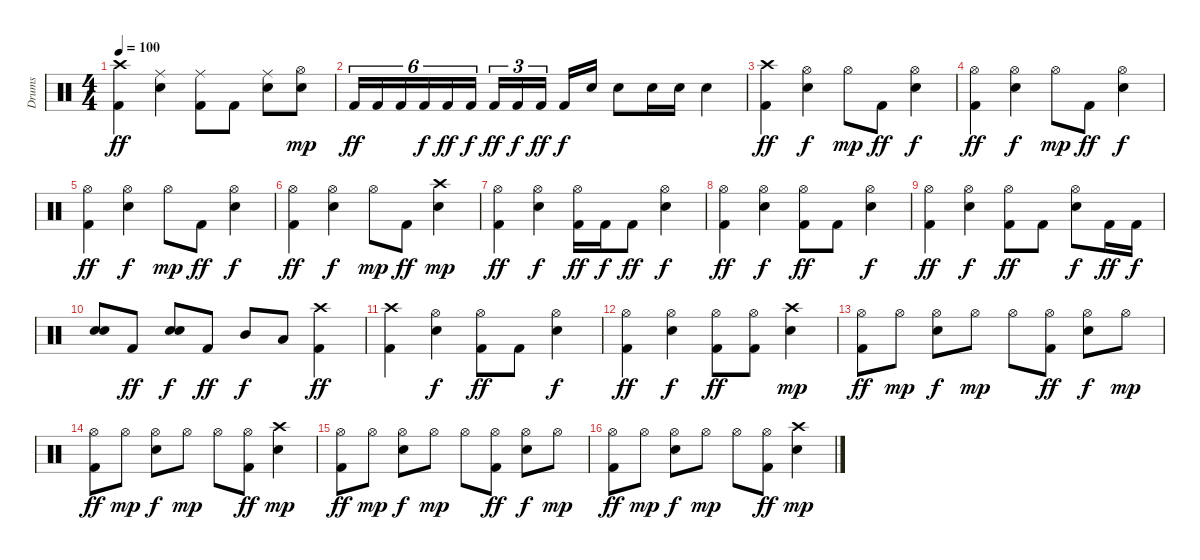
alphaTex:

\track ("Drums" "Drums") {instrument percussion}
\staff {score}
\articulation defaults
\ts (4 4)
\tempo 100
\clef neutral
\ks c
("Crash high (hit)" "Kick (hit) 2").4{dy ff} ("Ride (middle)" "Electric Snare (hit)").4 ("Ride (middle)" "Kick (hit) 2").8 "Kick (hit) 2".8 ("Ride (middle)" "Electric Snare (hit)").8 ("Hi-Hat (open)" "Electric Snare (hit)").8{dy mp} |
"Kick (hit) 2".16{tu (6 4) dy ff} "Kick (hit) 2".16{tu (6 4)} "Kick (hit) 2".16{tu (6 4)} "Kick (hit) 2".16{tu (6 4) dy f} "Kick (hit) 2".16{tu (6 4) dy ff} "Kick (hit) 2".16{tu (6 4) dy f} "Kick (hit) 2".16{tu (3 2) dy ff} "Kick (hit) 2".16{tu (3 2) dy f} "Kick (hit) 2".16{tu (3 2) dy ff} "Kick (hit) 2".16{dy f} "Electric Snare (hit)".16 "Electric Snare (hit)".8 "Electric Snare (hit)".16 "Electric Snare (hit)".16 "Electric Snare (hit)".4 |
("Crash high (hit)" "Kick (hit) 2").4{dy ff} ("Hi-Hat (open)" "Electric Snare (hit)").4{dy f} "Hi-Hat (open)".8{dy mp} "Kick (hit) 2".8{dy ff} ("Hi-Hat (open)" "Electric Snare (hit)").4{dy f} |
("Hi-Hat (open)" "Kick (hit) 2").4{dy ff} ("Hi-Hat (open)" "Electric Snare (hit)").4{dy f} "Hi-Hat (open)".8{dy mp} "Kick (hit) 2".8{dy ff} ("Hi-Hat (open)" "Electric Snare (hit)").4{dy f} |
("Hi-Hat (open)" "Kick (hit) 2").4{dy ff} ("Hi-Hat (open)" "Electric Snare (hit)").4{dy f} "Hi-Hat (open)".8{dy mp} "Kick (hit) 2".8{dy ff} ("Hi-Hat (open)" "Electric Snare (hit)").4{dy f} |
("Hi-Hat (open)" "Kick (hit) 2").4{dy ff} ("Hi-Hat (open)" "Electric Snare (hit)").4{dy f} "Hi-Hat (open)".8{dy mp} "Kick (hit) 2".8{dy ff} ("Crash high (hit)" "Electric Snare (hit)").4{dy mp} |
("Hi-Hat (open)" "Kick (hit) 2").4{dy ff} ("Hi-Hat (open)" "Electric Snare (hit)").4{dy f} ("Hi-Hat (open)" "Kick (hit) 2").16{dy ff} "Kick (hit) 2".16{dy f} "Kick (hit) 2".8{dy ff} ("Hi-Hat (open)" "Electric Snare (hit)").4{dy f} |
("Hi-Hat (open)" "Kick (hit) 2").4{dy ff} ("Hi-Hat (open)" "Electric Snare (hit)").4{dy f} ("Hi-Hat (open)" "Kick (hit) 2").8{dy ff} "Kick (hit) 2".8 ("Hi-Hat (open)" "Electric Snare (hit)").4{dy f} |
("Hi-Hat (open)" "Kick (hit) 2").4{dy ff} ("Hi-Hat (open)" "Electric Snare (hit)").4{dy f} ("Hi-Hat (open)" "Kick (hit) 2").8{dy ff} "Kick (hit) 2".8 ("Hi-Hat (open)" "Electric Snare (hit)").8{dy f} "Kick (hit) 2".16{dy ff} "Kick (hit) 2".16{dy f} |
("Electric Snare (hit)" "Electric Snare (hit)").8 "Kick (hit) 2".8{dy ff} ("Electric Snare (hit)" "Electric Snare (hit)").8{dy f} "Kick (hit) 2".8{dy ff} "Mid Tom (hit)".8{dy f} "Low Tom (hit)".8 ("Crash high (hit)" "Kick (hit) 2").4{dy ff} |
("Crash high (hit)" "Kick (hit) 2").4 ("Hi-Hat (open)" "Electric Snare (hit)").4{dy f} ("Hi-Hat (open)" "Kick (hit) 2").8{dy ff} "Kick (hit) 2".8 ("Hi-Hat (open)" "Electric Snare (hit)").4{dy f} |
("Hi-Hat (open)" "Kick (hit) 2").4{dy ff} ("Hi-Hat (open)" "Electric Snare (hit)").4{dy f} ("Hi-Hat (open)" "Kick (hit) 2").8{dy ff} ("Hi-Hat (open)" "Kick (hit) 2").8 ("Crash high (hit)" "Electric Snare (hit)").4{dy mp} |
("Hi-Hat (open)" "Kick (hit) 2").8{dy ff} "Hi-Hat (open)".8{dy mp} ("Hi-Hat (open)" "Electric Snare (hit)").8{dy f} "Hi-Hat (open)".8{dy mp} "Hi-Hat (open)".8 ("Hi-Hat (open)" "Kick (hit) 2").8{dy ff} ("Hi-Hat (open)" "Electric Snare (hit)").8{dy f} "Hi-Hat (open)".8{dy mp} |
("Hi-Hat (open)" "Kick (hit) 2").8{dy ff} "Hi-Hat (open)".8{dy mp} ("Hi-Hat (open)" "Electric Snare (hit)").8{dy f} "Hi-Hat (open)".8{dy mp} "Hi-Hat (open)".8 ("Hi-Hat (open)" "Kick (hit) 2").8{dy ff} ("Crash high (hit)" "Electric Snare (hit)").4{dy mp} |
("Hi-Hat (open)" "Kick (hit) 2").8{dy ff} "Hi-Hat (open)".8{dy mp} ("Hi-Hat (open)" "Electric Snare (hit)").8{dy f} "Hi-Hat (open)".8{dy mp} "Hi-Hat (open)".8 ("Hi-Hat (open)" "Kick (hit) 2").8{dy ff} ("Hi-Hat (open)" "Electric Snare (hit)").8{dy f} "Hi-Hat (open)".8{dy mp} |
("Hi-Hat (open)" "Kick (hit) 2").8{dy ff} "Hi-Hat (open)".8{dy mp} ("Hi-Hat (open)" "Electric Snare (hit)").8{dy f} "Hi-Hat (open)".8{dy mp} "Hi-Hat (open)".8 ("Hi-Hat (open)" "Kick (hit) 2").8{dy ff} ("Crash high (hit)" "Electric Snare (hit)").4{dy mp}
